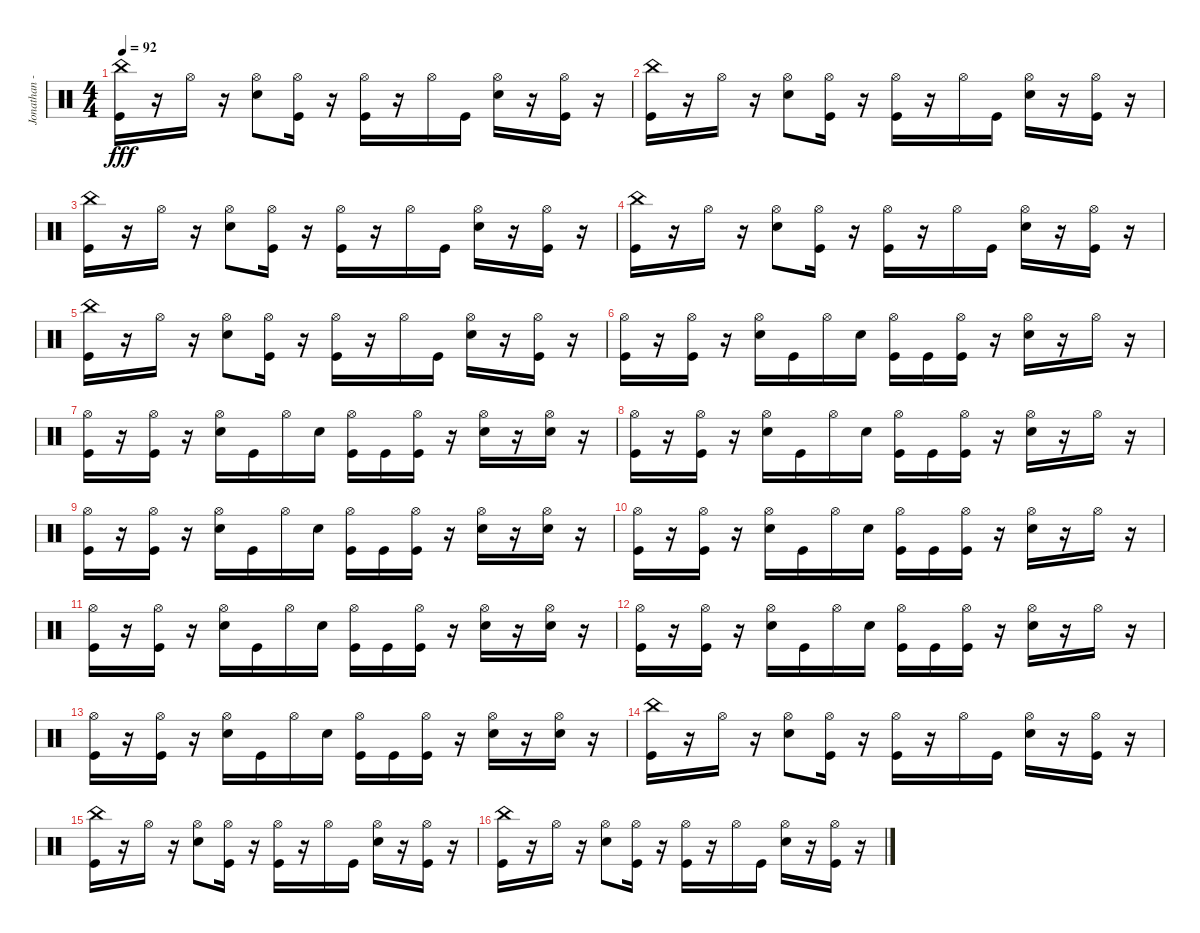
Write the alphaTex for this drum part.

\track ("Jonathan - Drums" "Jonathan -") {instrument percussion}
\staff {score}
\articulation defaults
\ts (4 4)
\tempo 92
\clef neutral
\ks c
("China (hit)" "Kick (hit)").16{dy fff} r.16 "Hi-Hat (open)".16 r.16 ("Hi-Hat (open)" "Electric Snare (hit)").8 ("Hi-Hat (open)" "Kick (hit)").16 r.16 ("Hi-Hat (open)" "Kick (hit)").16 r.16 "Hi-Hat (open)".16 "Kick (hit)".16 ("Hi-Hat (open)" "Electric Snare (hit)").16 r.16 ("Hi-Hat (open)" "Kick (hit)").16 r.16 |
("China (hit)" "Kick (hit)").16 r.16 "Hi-Hat (open)".16 r.16 ("Electric Snare (hit)" "Hi-Hat (open)").8 ("Kick (hit)" "Hi-Hat (open)").16 r.16 ("Kick (hit)" "Hi-Hat (open)").16 r.16 "Hi-Hat (open)".16 "Kick (hit)".16 ("Electric Snare (hit)" "Hi-Hat (open)").16 r.16 ("Kick (hit)" "Hi-Hat (open)").16 r.16 |
("China (hit)" "Kick (hit)").16 r.16 "Hi-Hat (open)".16 r.16 ("Hi-Hat (open)" "Electric Snare (hit)").8 ("Hi-Hat (open)" "Kick (hit)").16 r.16 ("Hi-Hat (open)" "Kick (hit)").16 r.16 "Hi-Hat (open)".16 "Kick (hit)".16 ("Hi-Hat (open)" "Electric Snare (hit)").16 r.16 ("Hi-Hat (open)" "Kick (hit)").16 r.16 |
("China (hit)" "Kick (hit)").16 r.16 "Hi-Hat (open)".16 r.16 ("Electric Snare (hit)" "Hi-Hat (open)").8 ("Kick (hit)" "Hi-Hat (open)").16 r.16 ("Kick (hit)" "Hi-Hat (open)").16 r.16 "Hi-Hat (open)".16 "Kick (hit)".16 ("Electric Snare (hit)" "Hi-Hat (open)").16 r.16 ("Kick (hit)" "Hi-Hat (open)").16 r.16 |
("China (hit)" "Kick (hit)").16 r.16 "Hi-Hat (open)".16 r.16 ("Hi-Hat (open)" "Electric Snare (hit)").8 ("Hi-Hat (open)" "Kick (hit)").16 r.16 ("Hi-Hat (open)" "Kick (hit)").16 r.16 "Hi-Hat (open)".16 "Kick (hit)".16 ("Hi-Hat (open)" "Electric Snare (hit)").16 r.16 ("Hi-Hat (open)" "Kick (hit)").16 r.16 |
("Hi-Hat (open)" "Kick (hit)").16 r.16 ("Hi-Hat (open)" "Kick (hit)").16 r.16 ("Hi-Hat (open)" "Electric Snare (hit)").16 "Kick (hit)".16 "Hi-Hat (open)".16 "Electric Snare (hit)".16 ("Hi-Hat (open)" "Kick (hit)").16 "Kick (hit)".16 ("Hi-Hat (open)" "Kick (hit)").16 r.16 ("Hi-Hat (open)" "Electric Snare (hit)").16 r.16 "Hi-Hat (open)".16 r.16 |
("Hi-Hat (open)" "Kick (hit)").16 r.16 ("Hi-Hat (open)" "Kick (hit)").16 r.16 ("Hi-Hat (open)" "Electric Snare (hit)").16 "Kick (hit)".16 "Hi-Hat (open)".16 "Electric Snare (hit)".16 ("Hi-Hat (open)" "Kick (hit)").16 "Kick (hit)".16 ("Hi-Hat (open)" "Kick (hit)").16 r.16 ("Hi-Hat (open)" "Electric Snare (hit)").16 r.16 ("Hi-Hat (open)" "Electric Snare (hit)").16 r.16 |
("Hi-Hat (open)" "Kick (hit)").16 r.16 ("Hi-Hat (open)" "Kick (hit)").16 r.16 ("Hi-Hat (open)" "Electric Snare (hit)").16 "Kick (hit)".16 "Hi-Hat (open)".16 "Electric Snare (hit)".16 ("Hi-Hat (open)" "Kick (hit)").16 "Kick (hit)".16 ("Hi-Hat (open)" "Kick (hit)").16 r.16 ("Hi-Hat (open)" "Electric Snare (hit)").16 r.16 "Hi-Hat (open)".16 r.16 |
("Hi-Hat (open)" "Kick (hit)").16 r.16 ("Hi-Hat (open)" "Kick (hit)").16 r.16 ("Hi-Hat (open)" "Electric Snare (hit)").16 "Kick (hit)".16 "Hi-Hat (open)".16 "Electric Snare (hit)".16 ("Hi-Hat (open)" "Kick (hit)").16 "Kick (hit)".16 ("Hi-Hat (open)" "Kick (hit)").16 r.16 ("Hi-Hat (open)" "Electric Snare (hit)").16 r.16 ("Hi-Hat (open)" "Electric Snare (hit)").16 r.16 |
("Hi-Hat (open)" "Kick (hit)").16 r.16 ("Hi-Hat (open)" "Kick (hit)").16 r.16 ("Hi-Hat (open)" "Electric Snare (hit)").16 "Kick (hit)".16 "Hi-Hat (open)".16 "Electric Snare (hit)".16 ("Hi-Hat (open)" "Kick (hit)").16 "Kick (hit)".16 ("Hi-Hat (open)" "Kick (hit)").16 r.16 ("Hi-Hat (open)" "Electric Snare (hit)").16 r.16 "Hi-Hat (open)".16 r.16 |
("Hi-Hat (open)" "Kick (hit)").16 r.16 ("Hi-Hat (open)" "Kick (hit)").16 r.16 ("Hi-Hat (open)" "Electric Snare (hit)").16 "Kick (hit)".16 "Hi-Hat (open)".16 "Electric Snare (hit)".16 ("Hi-Hat (open)" "Kick (hit)").16 "Kick (hit)".16 ("Hi-Hat (open)" "Kick (hit)").16 r.16 ("Hi-Hat (open)" "Electric Snare (hit)").16 r.16 ("Hi-Hat (open)" "Electric Snare (hit)").16 r.16 |
("Hi-Hat (open)" "Kick (hit)").16 r.16 ("Hi-Hat (open)" "Kick (hit)").16 r.16 ("Hi-Hat (open)" "Electric Snare (hit)").16 "Kick (hit)".16 "Hi-Hat (open)".16 "Electric Snare (hit)".16 ("Hi-Hat (open)" "Kick (hit)").16 "Kick (hit)".16 ("Hi-Hat (open)" "Kick (hit)").16 r.16 ("Hi-Hat (open)" "Electric Snare (hit)").16 r.16 "Hi-Hat (open)".16 r.16 |
("Hi-Hat (open)" "Kick (hit)").16 r.16 ("Hi-Hat (open)" "Kick (hit)").16 r.16 ("Hi-Hat (open)" "Electric Snare (hit)").16 "Kick (hit)".16 "Hi-Hat (open)".16 "Electric Snare (hit)".16 ("Hi-Hat (open)" "Kick (hit)").16 "Kick (hit)".16 ("Hi-Hat (open)" "Kick (hit)").16 r.16 ("Hi-Hat (open)" "Electric Snare (hit)").16 r.16 ("Hi-Hat (open)" "Electric Snare (hit)").16 r.16 |
("China (hit)" "Kick (hit)").16 r.16 "Hi-Hat (open)".16 r.16 ("Electric Snare (hit)" "Hi-Hat (open)").8 ("Kick (hit)" "Hi-Hat (open)").16 r.16 ("Kick (hit)" "Hi-Hat (open)").16 r.16 "Hi-Hat (open)".16 "Kick (hit)".16 ("Electric Snare (hit)" "Hi-Hat (open)").16 r.16 ("Kick (hit)" "Hi-Hat (open)").16 r.16 |
("China (hit)" "Kick (hit)").16 r.16 "Hi-Hat (open)".16 r.16 ("Hi-Hat (open)" "Electric Snare (hit)").8 ("Hi-Hat (open)" "Kick (hit)").16 r.16 ("Hi-Hat (open)" "Kick (hit)").16 r.16 "Hi-Hat (open)".16 "Kick (hit)".16 ("Hi-Hat (open)" "Electric Snare (hit)").16 r.16 ("Hi-Hat (open)" "Kick (hit)").16 r.16 |
("China (hit)" "Kick (hit)").16 r.16 "Hi-Hat (open)".16 r.16 ("Electric Snare (hit)" "Hi-Hat (open)").8 ("Kick (hit)" "Hi-Hat (open)").16 r.16 ("Kick (hit)" "Hi-Hat (open)").16 r.16 "Hi-Hat (open)".16 "Kick (hit)".16 ("Electric Snare (hit)" "Hi-Hat (open)").16 r.16 ("Kick (hit)" "Hi-Hat (open)").16 r.16
